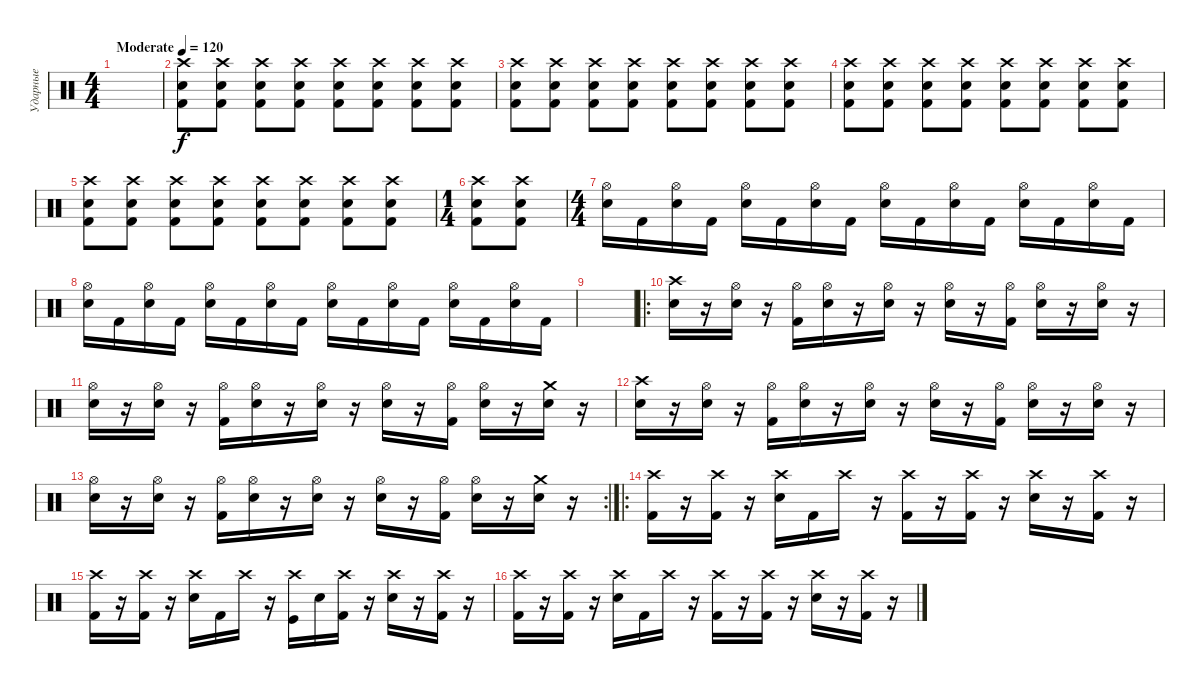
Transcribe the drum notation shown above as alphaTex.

\track ("Ударные" "Ударные") {instrument percussion}
\staff {score}
\articulation defaults
\ts (4 4)
\tempo (120 "Moderate")
\clef neutral
\ks c
|
("Crash high (hit)" "Snare (hit) 2" "Kick (hit) 2").8 ("Crash high (hit)" "Snare (hit) 2" "Kick (hit) 2").8 ("Snare (hit) 2" "Crash high (hit)" "Kick (hit) 2").8 ("Snare (hit) 2" "Crash high (hit)" "Kick (hit) 2").8 ("Snare (hit) 2" "Crash high (hit)" "Kick (hit) 2").8 ("Snare (hit) 2" "Crash high (hit)" "Kick (hit) 2").8 ("Snare (hit) 2" "Crash high (hit)" "Kick (hit) 2").8 ("Snare (hit) 2" "Crash high (hit)" "Kick (hit) 2").8 |
("Crash high (hit)" "Snare (hit) 2" "Kick (hit) 2").8 ("Crash high (hit)" "Snare (hit) 2" "Kick (hit) 2").8 ("Snare (hit) 2" "Crash high (hit)" "Kick (hit) 2").8 ("Snare (hit) 2" "Crash high (hit)" "Kick (hit) 2").8 ("Snare (hit) 2" "Crash high (hit)" "Kick (hit) 2").8 ("Snare (hit) 2" "Crash high (hit)" "Kick (hit) 2").8 ("Snare (hit) 2" "Crash high (hit)" "Kick (hit) 2").8 ("Snare (hit) 2" "Crash high (hit)" "Kick (hit) 2").8 |
("Crash high (hit)" "Snare (hit) 2" "Kick (hit) 2").8 ("Crash high (hit)" "Snare (hit) 2" "Kick (hit) 2").8 ("Snare (hit) 2" "Crash high (hit)" "Kick (hit) 2").8 ("Snare (hit) 2" "Crash high (hit)" "Kick (hit) 2").8 ("Snare (hit) 2" "Crash high (hit)" "Kick (hit) 2").8 ("Snare (hit) 2" "Crash high (hit)" "Kick (hit) 2").8 ("Snare (hit) 2" "Crash high (hit)" "Kick (hit) 2").8 ("Snare (hit) 2" "Crash high (hit)" "Kick (hit) 2").8 |
("Crash high (hit)" "Snare (hit) 2" "Kick (hit) 2").8 ("Crash high (hit)" "Snare (hit) 2" "Kick (hit) 2").8 ("Snare (hit) 2" "Crash high (hit)" "Kick (hit) 2").8 ("Snare (hit) 2" "Crash high (hit)" "Kick (hit) 2").8 ("Snare (hit) 2" "Crash high (hit)" "Kick (hit) 2").8 ("Snare (hit) 2" "Crash high (hit)" "Kick (hit) 2").8 ("Snare (hit) 2" "Crash high (hit)" "Kick (hit) 2").8 ("Snare (hit) 2" "Crash high (hit)" "Kick (hit) 2").8 |
\ts (1 4)
("Snare (hit) 2" "Crash high (hit)" "Kick (hit) 2").8 ("Snare (hit) 2" "Crash high (hit)" "Kick (hit) 2").8 |
\ts (4 4)
("Snare (hit) 2" "Hi-Hat (open)").16 "Kick (hit) 2".16 ("Snare (hit) 2" "Hi-Hat (open)").16 "Kick (hit) 2".16 ("Snare (hit) 2" "Hi-Hat (open)").16 "Kick (hit) 2".16 ("Snare (hit) 2" "Hi-Hat (open)").16 "Kick (hit) 2".16 ("Snare (hit) 2" "Hi-Hat (open)").16 "Kick (hit) 2".16 ("Snare (hit) 2" "Hi-Hat (open)").16 "Kick (hit) 2".16 ("Snare (hit) 2" "Hi-Hat (open)").16 "Kick (hit) 2".16 ("Snare (hit) 2" "Hi-Hat (open)").16 "Kick (hit) 2".16 |
("Snare (hit) 2" "Hi-Hat (open)").16 "Kick (hit) 2".16 ("Snare (hit) 2" "Hi-Hat (open)").16 "Kick (hit) 2".16 ("Snare (hit) 2" "Hi-Hat (open)").16 "Kick (hit) 2".16 ("Snare (hit) 2" "Hi-Hat (open)").16 "Kick (hit) 2".16 ("Snare (hit) 2" "Hi-Hat (open)").16 "Kick (hit) 2".16 ("Snare (hit) 2" "Hi-Hat (open)").16 "Kick (hit) 2".16 ("Snare (hit) 2" "Hi-Hat (open)").16 "Kick (hit) 2".16 ("Snare (hit) 2" "Hi-Hat (open)").16 "Kick (hit) 2".16 |
|
\ro
("Snare (hit) 2" "Crash high (hit)").16{dy f} r.16 ("Snare (hit) 2" "Hi-Hat (open)").16 r.16 ("Kick (hit) 2" "Hi-Hat (open)").16 ("Snare (hit) 2" "Hi-Hat (open)").16 r.16 ("Snare (hit) 2" "Hi-Hat (open)").16 r.16 ("Snare (hit) 2" "Hi-Hat (open)").16 r.16 ("Kick (hit) 2" "Hi-Hat (open)").16 ("Snare (hit) 2" "Hi-Hat (open)").16 r.16 ("Snare (hit) 2" "Hi-Hat (open)").16 r.16 |
("Snare (hit) 2" "Hi-Hat (open)").16 r.16 ("Snare (hit) 2" "Hi-Hat (open)").16 r.16 ("Kick (hit) 2" "Hi-Hat (open)").16 ("Snare (hit) 2" "Hi-Hat (open)").16 r.16 ("Snare (hit) 2" "Hi-Hat (open)").16 r.16 ("Snare (hit) 2" "Hi-Hat (open)").16 r.16 ("Kick (hit) 2" "Hi-Hat (open)").16 ("Snare (hit) 2" "Hi-Hat (open)").16 r.16 ("Snare (hit) 2" "Crash medium (hit)").16 r.16 |
("Snare (hit) 2" "Crash high (hit)").16 r.16 ("Snare (hit) 2" "Hi-Hat (open)").16 r.16 ("Kick (hit) 2" "Hi-Hat (open)").16 ("Snare (hit) 2" "Hi-Hat (open)").16 r.16 ("Snare (hit) 2" "Hi-Hat (open)").16 r.16 ("Snare (hit) 2" "Hi-Hat (open)").16 r.16 ("Kick (hit) 2" "Hi-Hat (open)").16 ("Snare (hit) 2" "Hi-Hat (open)").16 r.16 ("Snare (hit) 2" "Hi-Hat (open)").16 r.16 |
\rc 2
("Snare (hit) 2" "Hi-Hat (open)").16 r.16 ("Snare (hit) 2" "Hi-Hat (open)").16 r.16 ("Kick (hit) 2" "Hi-Hat (open)").16 ("Snare (hit) 2" "Hi-Hat (open)").16 r.16 ("Snare (hit) 2" "Hi-Hat (open)").16 r.16 ("Snare (hit) 2" "Hi-Hat (open)").16 r.16 ("Kick (hit) 2" "Hi-Hat (open)").16 ("Snare (hit) 2" "Hi-Hat (open)").16 r.16 ("Snare (hit) 2" "Crash medium (hit)").16 r.16 |
\ro
("Crash high (hit)" "Kick (hit) 2").16 r.16 ("Crash high (hit)" "Kick (hit) 2").16 r.16 ("Crash high (hit)" "Snare (hit) 2").16 "Kick (hit) 2".16 "Crash high (hit)".16 r.16 ("Crash high (hit)" "Kick (hit) 2").16 r.16 ("Crash high (hit)" "Kick (hit) 2").16 r.16 ("Crash high (hit)" "Snare (hit) 2").16 r.16 ("Crash high (hit)" "Kick (hit) 2").16 r.16 |
("Crash high (hit)" "Kick (hit) 2").16 r.16 ("Crash high (hit)" "Kick (hit) 2").16 r.16 ("Crash high (hit)" "Snare (hit) 2").16 "Kick (hit) 2".16 "Crash high (hit)".16 r.16 ("Crash high (hit)" "Kick (hit)").16 "Snare (hit) 2".16 ("Crash high (hit)" "Kick (hit) 2").16 r.16 ("Crash high (hit)" "Snare (hit) 2").16 r.16 ("Crash high (hit)" "Kick (hit) 2").16 r.16 |
("Crash high (hit)" "Kick (hit) 2").16 r.16 ("Crash high (hit)" "Kick (hit) 2").16 r.16 ("Crash high (hit)" "Snare (hit) 2").16 "Kick (hit) 2".16 "Crash high (hit)".16 r.16 ("Crash high (hit)" "Kick (hit) 2").16 r.16 ("Crash high (hit)" "Kick (hit) 2").16 r.16 ("Crash high (hit)" "Snare (hit) 2").16 r.16 ("Crash high (hit)" "Kick (hit) 2").16 r.16
